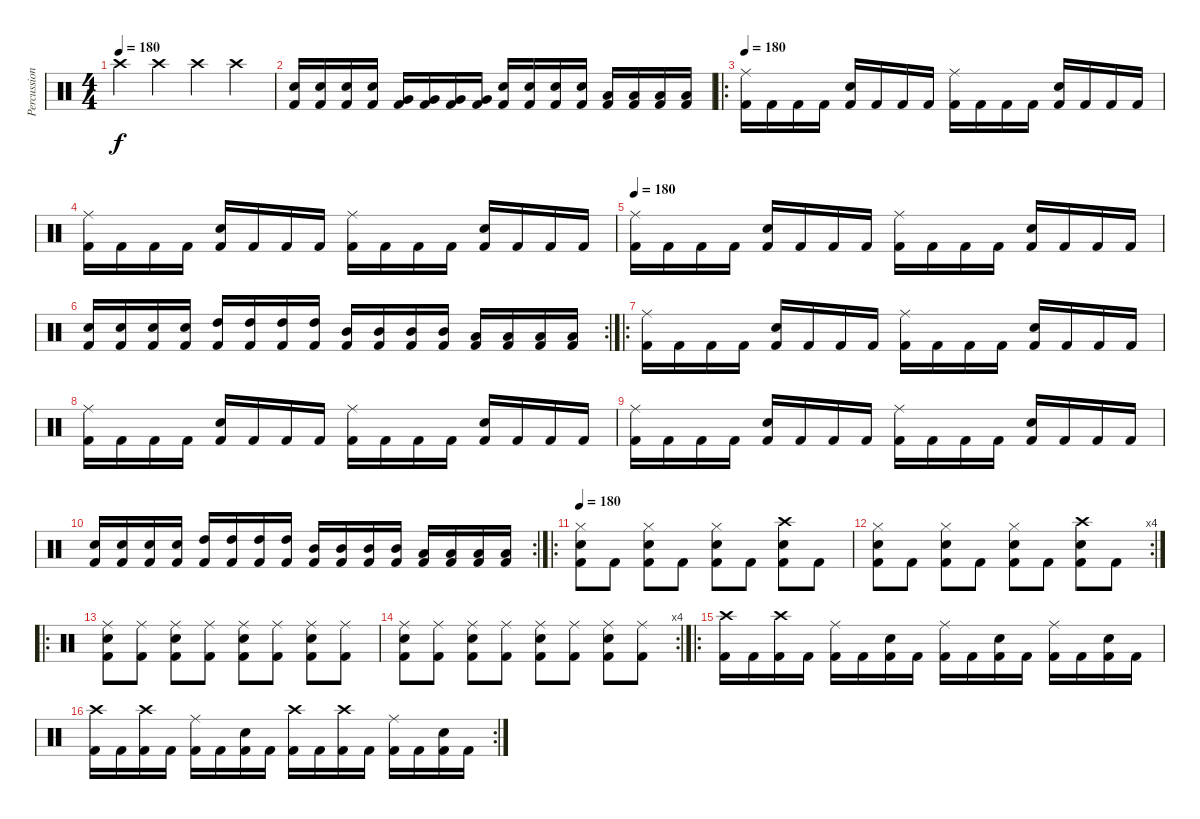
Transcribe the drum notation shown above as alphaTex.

\track ("Percussions" "Percussion") {instrument percussion}
\staff {score}
\articulation defaults
\ts (4 4)
\tempo 180
\clef neutral
\ks c "Crash high (hit)".4{dy f} "Crash high (hit)".4 "Crash high (hit)".4 "Crash high (hit)".4
|
("Kick (hit) 2" "Electric Snare (hit)").16 ("Kick (hit) 2" "Electric Snare (hit)").16 ("Kick (hit) 2" "Electric Snare (hit)").16 ("Kick (hit) 2" "Electric Snare (hit)").16 ("Kick (hit) 2" "Very Low Tom (hit)").16 ("Kick (hit) 2" "Very Low Tom (hit)").16 ("Kick (hit) 2" "Very Low Tom (hit)").16 ("Kick (hit) 2" "Very Low Tom (hit)").16 ("Kick (hit) 2" "Electric Snare (hit)").16 ("Kick (hit) 2" "Electric Snare (hit)").16 ("Kick (hit) 2" "Electric Snare (hit)").16 ("Kick (hit) 2" "Electric Snare (hit)").16 ("Kick (hit) 2" "Low Tom (hit)").16 ("Kick (hit) 2" "Low Tom (hit)").16 ("Kick (hit) 2" "Low Tom (hit)").16 ("Kick (hit) 2" "Low Tom (hit)").16 |
\ro
\tempo 180
("Kick (hit) 2" "Ride (middle)").16 "Kick (hit) 2".16 "Kick (hit) 2".16 "Kick (hit) 2".16 ("Kick (hit) 2" "Electric Snare (hit)").16 "Kick (hit) 2".16 "Kick (hit) 2".16 "Kick (hit) 2".16 ("Kick (hit) 2" "Ride (middle)").16 "Kick (hit) 2".16 "Kick (hit) 2".16 "Kick (hit) 2".16 ("Kick (hit) 2" "Electric Snare (hit)").16 "Kick (hit) 2".16 "Kick (hit) 2".16 "Kick (hit) 2".16 |
("Kick (hit) 2" "Ride (middle)").16 "Kick (hit) 2".16 "Kick (hit) 2".16 "Kick (hit) 2".16 ("Kick (hit) 2" "Electric Snare (hit)").16 "Kick (hit) 2".16 "Kick (hit) 2".16 "Kick (hit) 2".16 ("Kick (hit) 2" "Ride (middle)").16 "Kick (hit) 2".16 "Kick (hit) 2".16 "Kick (hit) 2".16 ("Kick (hit) 2" "Electric Snare (hit)").16 "Kick (hit) 2".16 "Kick (hit) 2".16 "Kick (hit) 2".16 |
\tempo 180
("Kick (hit) 2" "Ride (middle)").16 "Kick (hit) 2".16 "Kick (hit) 2".16 "Kick (hit) 2".16 ("Kick (hit) 2" "Electric Snare (hit)").16 "Kick (hit) 2".16 "Kick (hit) 2".16 "Kick (hit) 2".16 ("Kick (hit) 2" "Ride (middle)").16 "Kick (hit) 2".16 "Kick (hit) 2".16 "Kick (hit) 2".16 ("Kick (hit) 2" "Electric Snare (hit)").16 "Kick (hit) 2".16 "Kick (hit) 2".16 "Kick (hit) 2".16 |
\rc 2
("Kick (hit) 2" "Electric Snare (hit)").16 ("Kick (hit) 2" "Electric Snare (hit)").16 ("Kick (hit) 2" "Electric Snare (hit)").16 ("Kick (hit) 2" "Electric Snare (hit)").16 ("Kick (hit) 2" "High Tom (hit)").16 ("Kick (hit) 2" "High Tom (hit)").16 ("Kick (hit) 2" "High Tom (hit)").16 ("Kick (hit) 2" "High Tom (hit)").16 ("Kick (hit) 2" "Mid Tom (hit)").16 ("Kick (hit) 2" "Mid Tom (hit)").16 ("Kick (hit) 2" "Mid Tom (hit)").16 ("Kick (hit) 2" "Mid Tom (hit)").16 ("Kick (hit) 2" "Low Tom (hit)").16 ("Kick (hit) 2" "Low Tom (hit)").16 ("Kick (hit) 2" "Low Tom (hit)").16 ("Kick (hit) 2" "Low Tom (hit)").16 |
\ro
("Kick (hit) 2" "Ride (middle)").16 "Kick (hit) 2".16 "Kick (hit) 2".16 "Kick (hit) 2".16 ("Kick (hit) 2" "Electric Snare (hit)").16 "Kick (hit) 2".16 "Kick (hit) 2".16 "Kick (hit) 2".16 ("Kick (hit) 2" "Ride (middle)").16 "Kick (hit) 2".16 "Kick (hit) 2".16 "Kick (hit) 2".16 ("Kick (hit) 2" "Electric Snare (hit)").16 "Kick (hit) 2".16 "Kick (hit) 2".16 "Kick (hit) 2".16 |
("Kick (hit) 2" "Ride (middle)").16 "Kick (hit) 2".16 "Kick (hit) 2".16 "Kick (hit) 2".16 ("Kick (hit) 2" "Electric Snare (hit)").16 "Kick (hit) 2".16 "Kick (hit) 2".16 "Kick (hit) 2".16 ("Kick (hit) 2" "Ride (middle)").16 "Kick (hit) 2".16 "Kick (hit) 2".16 "Kick (hit) 2".16 ("Kick (hit) 2" "Electric Snare (hit)").16 "Kick (hit) 2".16 "Kick (hit) 2".16 "Kick (hit) 2".16 |
("Kick (hit) 2" "Ride (middle)").16 "Kick (hit) 2".16 "Kick (hit) 2".16 "Kick (hit) 2".16 ("Kick (hit) 2" "Electric Snare (hit)").16 "Kick (hit) 2".16 "Kick (hit) 2".16 "Kick (hit) 2".16 ("Kick (hit) 2" "Ride (middle)").16 "Kick (hit) 2".16 "Kick (hit) 2".16 "Kick (hit) 2".16 ("Kick (hit) 2" "Electric Snare (hit)").16 "Kick (hit) 2".16 "Kick (hit) 2".16 "Kick (hit) 2".16 |
\rc 2
("Kick (hit) 2" "Electric Snare (hit)").16 ("Kick (hit) 2" "Electric Snare (hit)").16 ("Kick (hit) 2" "Electric Snare (hit)").16 ("Kick (hit) 2" "Electric Snare (hit)").16 ("Kick (hit) 2" "High Tom (hit)").16 ("Kick (hit) 2" "High Tom (hit)").16 ("Kick (hit) 2" "High Tom (hit)").16 ("Kick (hit) 2" "High Tom (hit)").16 ("Kick (hit) 2" "Mid Tom (hit)").16 ("Kick (hit) 2" "Mid Tom (hit)").16 ("Kick (hit) 2" "Mid Tom (hit)").16 ("Kick (hit) 2" "Mid Tom (hit)").16 ("Kick (hit) 2" "Low Tom (hit)").16 ("Kick (hit) 2" "Low Tom (hit)").16 ("Kick (hit) 2" "Low Tom (hit)").16 ("Kick (hit) 2" "Low Tom (hit)").16 |
\ro
\tempo 180
("Kick (hit) 2" "Hi-Hat (closed)" "Electric Snare (hit)").8 "Kick (hit) 2".8 ("Kick (hit) 2" "Hi-Hat (closed)" "Electric Snare (hit)").8 "Kick (hit) 2".8 ("Kick (hit) 2" "Hi-Hat (closed)" "Electric Snare (hit)").8 "Kick (hit) 2".8 ("Kick (hit) 2" "Electric Snare (hit)" "Crash high (hit)").8 "Kick (hit) 2".8 |
\rc 4
("Kick (hit) 2" "Hi-Hat (closed)" "Electric Snare (hit)").8 "Kick (hit) 2".8 ("Kick (hit) 2" "Hi-Hat (closed)" "Electric Snare (hit)").8 "Kick (hit) 2".8 ("Kick (hit) 2" "Hi-Hat (closed)" "Electric Snare (hit)").8 "Kick (hit) 2".8 ("Kick (hit) 2" "Electric Snare (hit)" "Crash high (hit)").8 "Kick (hit) 2".8 |
\ro
("Kick (hit) 2" "Ride (middle)" "Electric Snare (hit)").8 ("Kick (hit) 2" "Ride (middle)").8 ("Kick (hit) 2" "Ride (middle)" "Electric Snare (hit)").8 ("Kick (hit) 2" "Ride (middle)").8 ("Kick (hit) 2" "Ride (middle)" "Electric Snare (hit)").8 ("Kick (hit) 2" "Ride (middle)").8 ("Kick (hit) 2" "Ride (middle)" "Electric Snare (hit)").8 ("Kick (hit) 2" "Ride (middle)").8 |
\rc 4
("Kick (hit) 2" "Ride (middle)" "Electric Snare (hit)").8 ("Kick (hit) 2" "Ride (middle)").8 ("Kick (hit) 2" "Ride (middle)" "Electric Snare (hit)").8 ("Kick (hit) 2" "Ride (middle)").8 ("Kick (hit) 2" "Ride (middle)" "Electric Snare (hit)").8 ("Kick (hit) 2" "Ride (middle)").8 ("Kick (hit) 2" "Ride (middle)" "Electric Snare (hit)").8 ("Kick (hit) 2" "Ride (middle)").8 |
\ro
("Kick (hit) 2" "Crash high (hit)").16 "Kick (hit) 2".16 ("Kick (hit) 2" "Crash high (hit)").16 "Kick (hit) 2".16 ("Kick (hit) 2" "Ride (middle)").16 "Kick (hit) 2".16 ("Kick (hit) 2" "Electric Snare (hit)").16 "Kick (hit) 2".16 ("Kick (hit) 2" "Ride (middle)").16 "Kick (hit) 2".16 ("Kick (hit) 2" "Electric Snare (hit)").16 "Kick (hit) 2".16 ("Kick (hit) 2" "Ride (middle)").16 "Kick (hit) 2".16 ("Kick (hit) 2" "Electric Snare (hit)").16 "Kick (hit) 2".16 |
\rc 2
("Kick (hit) 2" "Crash high (hit)").16 "Kick (hit) 2".16 ("Kick (hit) 2" "Crash high (hit)").16 "Kick (hit) 2".16 ("Kick (hit) 2" "Ride (middle)").16 "Kick (hit) 2".16 ("Kick (hit) 2" "Electric Snare (hit)").16 "Kick (hit) 2".16 ("Kick (hit) 2" "Crash high (hit)").16 "Kick (hit) 2".16 ("Kick (hit) 2" "Crash high (hit)").16 "Kick (hit) 2".16 ("Kick (hit) 2" "Ride (middle)").16 "Kick (hit) 2".16 ("Kick (hit) 2" "Electric Snare (hit)").16 "Kick (hit) 2".16
